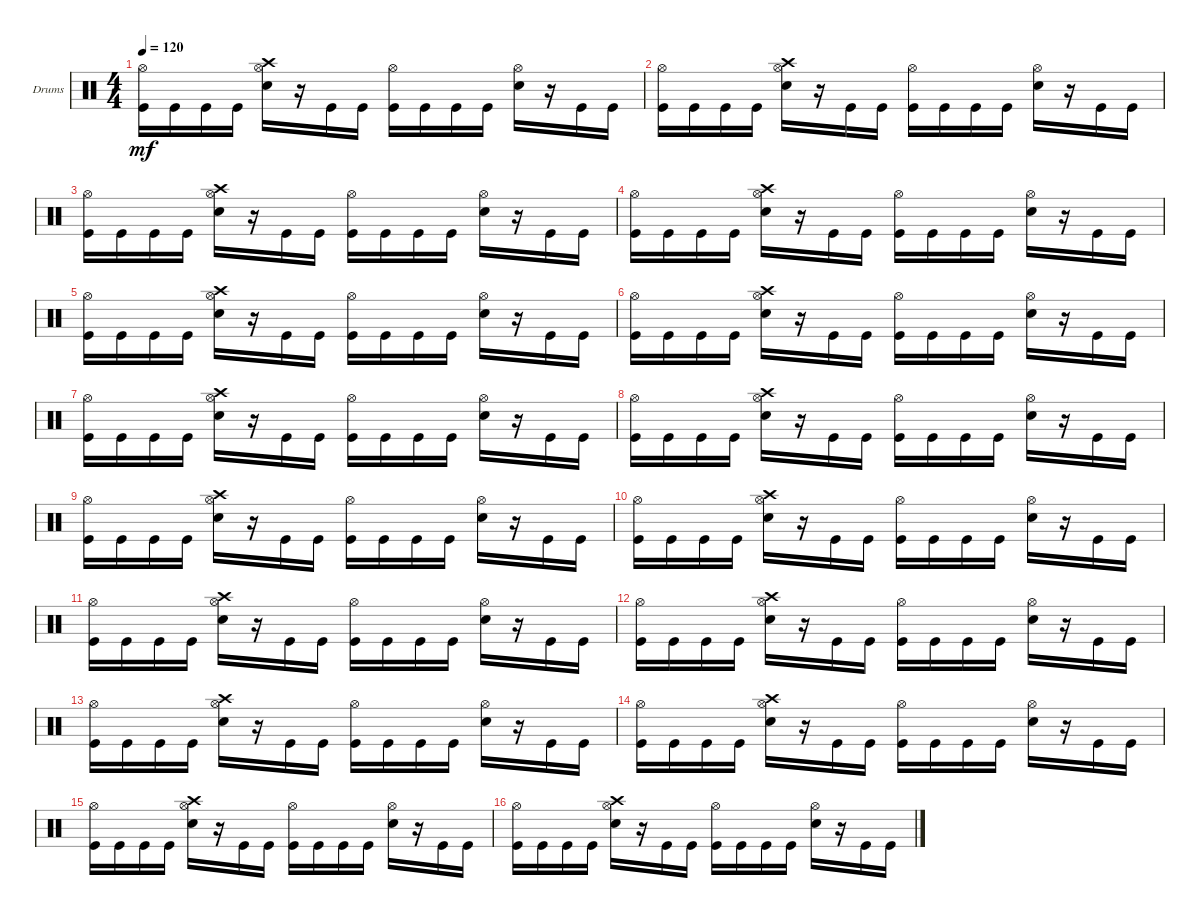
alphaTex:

\bracketExtendMode groupsimilarinstruments
\firstSystemTrackNameOrientation horizontal
\otherSystemsTrackNameOrientation horizontal
\track ("Drumkit" "Drums") {instrument percussion}
\staff {score}
\articulation defaults
\ts (4 4)
\tempo 120
\clef neutral
\scale
0.321839
\ks c
("Hi-Hat (open)" "Kick (hit)").16{dy mf} "Kick (hit)".16 "Kick (hit)".16 "Kick (hit)".16 ("Snare (hit) 2" "Crash high (hit)" "Hi-Hat (open)").16 r.16 "Kick (hit)".16 "Kick (hit)".16 ("Kick (hit)" "Hi-Hat (open)").16 "Kick (hit)".16 "Kick (hit)".16 "Kick (hit)".16 ("Snare (hit) 2" "Hi-Hat (open)").16 r.16 "Kick (hit)".16 "Kick (hit)".16 |
\scale
0.333333 ("Hi-Hat (open)" "Kick (hit)").16 "Kick (hit)".16 "Kick (hit)".16 "Kick (hit)".16 ("Snare (hit) 2" "Crash high (hit)" "Hi-Hat (open)").16 r.16 "Kick (hit)".16 "Kick (hit)".16 ("Kick (hit)" "Hi-Hat (open)").16 "Kick (hit)".16 "Kick (hit)".16 "Kick (hit)".16 ("Snare (hit) 2" "Hi-Hat (open)").16 r.16 "Kick (hit)".16 "Kick (hit)".16 |
\scale
0.333333 ("Hi-Hat (open)" "Kick (hit)").16 "Kick (hit)".16 "Kick (hit)".16 "Kick (hit)".16 ("Snare (hit) 2" "Crash high (hit)" "Hi-Hat (open)").16 r.16 "Kick (hit)".16 "Kick (hit)".16 ("Kick (hit)" "Hi-Hat (open)").16 "Kick (hit)".16 "Kick (hit)".16 "Kick (hit)".16 ("Snare (hit) 2" "Hi-Hat (open)").16 r.16 "Kick (hit)".16 "Kick (hit)".16 |
\scale
0.333333 ("Hi-Hat (open)" "Kick (hit)").16 "Kick (hit)".16 "Kick (hit)".16 "Kick (hit)".16 ("Snare (hit) 2" "Crash high (hit)" "Hi-Hat (open)").16 r.16 "Kick (hit)".16 "Kick (hit)".16 ("Kick (hit)" "Hi-Hat (open)").16 "Kick (hit)".16 "Kick (hit)".16 "Kick (hit)".16 ("Snare (hit) 2" "Hi-Hat (open)").16 r.16 "Kick (hit)".16 "Kick (hit)".16 |
\scale
0.333333 ("Hi-Hat (open)" "Kick (hit)").16 "Kick (hit)".16 "Kick (hit)".16 "Kick (hit)".16 ("Snare (hit) 2" "Crash high (hit)" "Hi-Hat (open)").16 r.16 "Kick (hit)".16 "Kick (hit)".16 ("Kick (hit)" "Hi-Hat (open)").16 "Kick (hit)".16 "Kick (hit)".16 "Kick (hit)".16 ("Snare (hit) 2" "Hi-Hat (open)").16 r.16 "Kick (hit)".16 "Kick (hit)".16 |
\scale
0.333333 ("Hi-Hat (open)" "Kick (hit)").16 "Kick (hit)".16 "Kick (hit)".16 "Kick (hit)".16 ("Snare (hit) 2" "Crash high (hit)" "Hi-Hat (open)").16 r.16 "Kick (hit)".16 "Kick (hit)".16 ("Kick (hit)" "Hi-Hat (open)").16 "Kick (hit)".16 "Kick (hit)".16 "Kick (hit)".16 ("Snare (hit) 2" "Hi-Hat (open)").16 r.16 "Kick (hit)".16 "Kick (hit)".16 |
\scale
0.333333 ("Hi-Hat (open)" "Kick (hit)").16 "Kick (hit)".16 "Kick (hit)".16 "Kick (hit)".16 ("Snare (hit) 2" "Crash high (hit)" "Hi-Hat (open)").16 r.16 "Kick (hit)".16 "Kick (hit)".16 ("Kick (hit)" "Hi-Hat (open)").16 "Kick (hit)".16 "Kick (hit)".16 "Kick (hit)".16 ("Snare (hit) 2" "Hi-Hat (open)").16 r.16 "Kick (hit)".16 "Kick (hit)".16 |
\scale
0.333333 ("Hi-Hat (open)" "Kick (hit)").16 "Kick (hit)".16 "Kick (hit)".16 "Kick (hit)".16 ("Snare (hit) 2" "Crash high (hit)" "Hi-Hat (open)").16 r.16 "Kick (hit)".16 "Kick (hit)".16 ("Kick (hit)" "Hi-Hat (open)").16 "Kick (hit)".16 "Kick (hit)".16 "Kick (hit)".16 ("Snare (hit) 2" "Hi-Hat (open)").16 r.16 "Kick (hit)".16 "Kick (hit)".16 |
\scale
0.333333 ("Hi-Hat (open)" "Kick (hit)").16 "Kick (hit)".16 "Kick (hit)".16 "Kick (hit)".16 ("Snare (hit) 2" "Crash high (hit)" "Hi-Hat (open)").16 r.16 "Kick (hit)".16 "Kick (hit)".16 ("Kick (hit)" "Hi-Hat (open)").16 "Kick (hit)".16 "Kick (hit)".16 "Kick (hit)".16 ("Snare (hit) 2" "Hi-Hat (open)").16 r.16 "Kick (hit)".16 "Kick (hit)".16 |
\scale
0.333333 ("Hi-Hat (open)" "Kick (hit)").16 "Kick (hit)".16 "Kick (hit)".16 "Kick (hit)".16 ("Snare (hit) 2" "Crash high (hit)" "Hi-Hat (open)").16 r.16 "Kick (hit)".16 "Kick (hit)".16 ("Kick (hit)" "Hi-Hat (open)").16 "Kick (hit)".16 "Kick (hit)".16 "Kick (hit)".16 ("Snare (hit) 2" "Hi-Hat (open)").16 r.16 "Kick (hit)".16 "Kick (hit)".16 |
\scale
0.333333 ("Hi-Hat (open)" "Kick (hit)").16 "Kick (hit)".16 "Kick (hit)".16 "Kick (hit)".16 ("Snare (hit) 2" "Crash high (hit)" "Hi-Hat (open)").16 r.16 "Kick (hit)".16 "Kick (hit)".16 ("Kick (hit)" "Hi-Hat (open)").16 "Kick (hit)".16 "Kick (hit)".16 "Kick (hit)".16 ("Snare (hit) 2" "Hi-Hat (open)").16 r.16 "Kick (hit)".16 "Kick (hit)".16 |
\scale
0.333333 ("Hi-Hat (open)" "Kick (hit)").16 "Kick (hit)".16 "Kick (hit)".16 "Kick (hit)".16 ("Snare (hit) 2" "Crash high (hit)" "Hi-Hat (open)").16 r.16 "Kick (hit)".16 "Kick (hit)".16 ("Kick (hit)" "Hi-Hat (open)").16 "Kick (hit)".16 "Kick (hit)".16 "Kick (hit)".16 ("Snare (hit) 2" "Hi-Hat (open)").16 r.16 "Kick (hit)".16 "Kick (hit)".16 |
\scale
0.333333 ("Hi-Hat (open)" "Kick (hit)").16 "Kick (hit)".16 "Kick (hit)".16 "Kick (hit)".16 ("Snare (hit) 2" "Crash high (hit)" "Hi-Hat (open)").16 r.16 "Kick (hit)".16 "Kick (hit)".16 ("Kick (hit)" "Hi-Hat (open)").16 "Kick (hit)".16 "Kick (hit)".16 "Kick (hit)".16 ("Snare (hit) 2" "Hi-Hat (open)").16 r.16 "Kick (hit)".16 "Kick (hit)".16 |
\scale
0.333333 ("Hi-Hat (open)" "Kick (hit)").16 "Kick (hit)".16 "Kick (hit)".16 "Kick (hit)".16 ("Snare (hit) 2" "Crash high (hit)" "Hi-Hat (open)").16 r.16 "Kick (hit)".16 "Kick (hit)".16 ("Kick (hit)" "Hi-Hat (open)").16 "Kick (hit)".16 "Kick (hit)".16 "Kick (hit)".16 ("Snare (hit) 2" "Hi-Hat (open)").16 r.16 "Kick (hit)".16 "Kick (hit)".16 |
\scale
0.333333 ("Hi-Hat (open)" "Kick (hit)").16 "Kick (hit)".16 "Kick (hit)".16 "Kick (hit)".16 ("Snare (hit) 2" "Crash high (hit)" "Hi-Hat (open)").16 r.16 "Kick (hit)".16 "Kick (hit)".16 ("Kick (hit)" "Hi-Hat (open)").16 "Kick (hit)".16 "Kick (hit)".16 "Kick (hit)".16 ("Snare (hit) 2" "Hi-Hat (open)").16 r.16 "Kick (hit)".16 "Kick (hit)".16 |
\scale
0.333333 ("Hi-Hat (open)" "Kick (hit)").16 "Kick (hit)".16 "Kick (hit)".16 "Kick (hit)".16 ("Snare (hit) 2" "Crash high (hit)" "Hi-Hat (open)").16 r.16 "Kick (hit)".16 "Kick (hit)".16 ("Kick (hit)" "Hi-Hat (open)").16 "Kick (hit)".16 "Kick (hit)".16 "Kick (hit)".16 ("Snare (hit) 2" "Hi-Hat (open)").16 r.16 "Kick (hit)".16 "Kick (hit)".16
